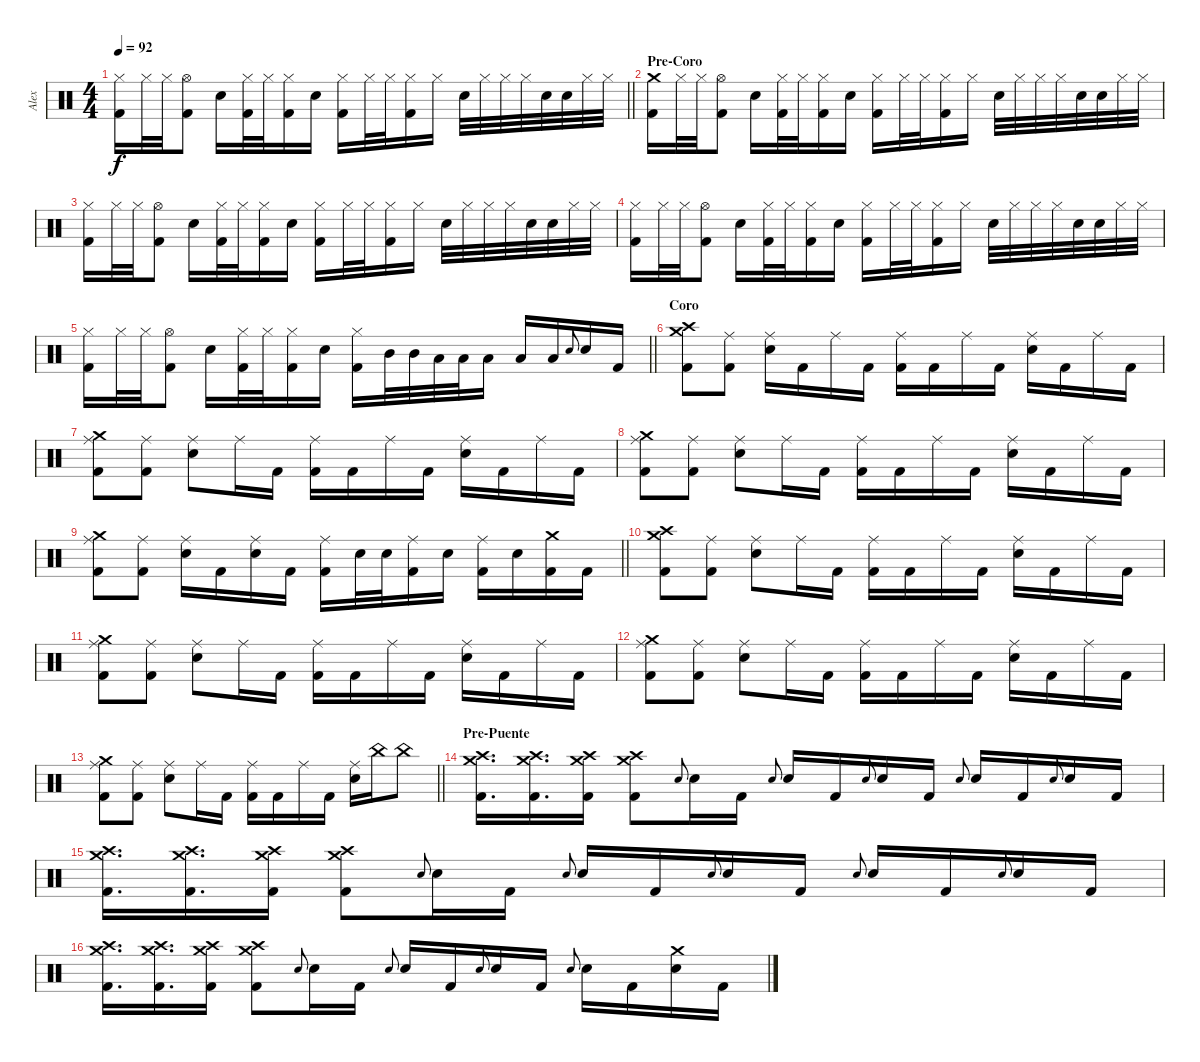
\track ("Alex" "Alex") {instrument percussion}
\staff
\articulation defaults
\ts (4 4)
\tempo 92
\clef neutral
\barLineRight lightlight
\ks c
("Hi-Hat (closed)" "Kick (hit) 2").16{dy f} "Hi-Hat (closed)".32 "Hi-Hat (closed)".32 ("Hi-Hat (open)" "Kick (hit) 2").8 "Electric Snare (hit)".16 ("Hi-Hat (closed)" "Kick (hit) 2").32 "Hi-Hat (closed)".32 ("Hi-Hat (closed)" "Kick (hit) 2").16 "Electric Snare (hit)".16 ("Hi-Hat (closed)" "Kick (hit) 2").16 "Hi-Hat (closed)".32 "Hi-Hat (closed)".32 ("Hi-Hat (closed)" "Kick (hit) 2").16 "Hi-Hat (closed)".16 "Electric Snare (hit)".32 "Hi-Hat (closed)".32 "Hi-Hat (closed)".32 "Hi-Hat (closed)".32 "Electric Snare (hit)".32 "Electric Snare (hit)".32 "Hi-Hat (closed)".32 "Hi-Hat (closed)".32 |
\section ("" "Pre-Coro")
("Crash medium (hit)" "Kick (hit) 2").16 "Hi-Hat (closed)".32 "Hi-Hat (closed)".32 ("Hi-Hat (open)" "Kick (hit) 2").8 "Electric Snare (hit)".16 ("Hi-Hat (closed)" "Kick (hit) 2").32 "Hi-Hat (closed)".32 ("Hi-Hat (closed)" "Kick (hit) 2").16 "Electric Snare (hit)".16 ("Hi-Hat (closed)" "Kick (hit) 2").16 "Hi-Hat (closed)".32 "Hi-Hat (closed)".32 ("Hi-Hat (closed)" "Kick (hit) 2").16 "Hi-Hat (closed)".16 "Electric Snare (hit)".32 "Hi-Hat (closed)".32 "Hi-Hat (closed)".32 "Hi-Hat (closed)".32 "Electric Snare (hit)".32 "Electric Snare (hit)".32 "Hi-Hat (closed)".32 "Hi-Hat (closed)".32 |
("Hi-Hat (closed)" "Kick (hit) 2").16 "Hi-Hat (closed)".32 "Hi-Hat (closed)".32 ("Hi-Hat (open)" "Kick (hit) 2").8 "Electric Snare (hit)".16 ("Hi-Hat (closed)" "Kick (hit) 2").32 "Hi-Hat (closed)".32 ("Hi-Hat (closed)" "Kick (hit) 2").16 "Electric Snare (hit)".16 ("Hi-Hat (closed)" "Kick (hit) 2").16 "Hi-Hat (closed)".32 "Hi-Hat (closed)".32 ("Hi-Hat (closed)" "Kick (hit) 2").16 "Hi-Hat (closed)".16 "Electric Snare (hit)".32 "Hi-Hat (closed)".32 "Hi-Hat (closed)".32 "Hi-Hat (closed)".32 "Electric Snare (hit)".32 "Electric Snare (hit)".32 "Hi-Hat (closed)".32 "Hi-Hat (closed)".32 |
("Hi-Hat (closed)" "Kick (hit) 2").16 "Hi-Hat (closed)".32 "Hi-Hat (closed)".32 ("Hi-Hat (open)" "Kick (hit) 2").8 "Electric Snare (hit)".16 ("Hi-Hat (closed)" "Kick (hit) 2").32 "Hi-Hat (closed)".32 ("Hi-Hat (closed)" "Kick (hit) 2").16 "Electric Snare (hit)".16 ("Hi-Hat (closed)" "Kick (hit) 2").16 "Hi-Hat (closed)".32 "Hi-Hat (closed)".32 ("Hi-Hat (closed)" "Kick (hit) 2").16 "Hi-Hat (closed)".16 "Electric Snare (hit)".32 "Hi-Hat (closed)".32 "Hi-Hat (closed)".32 "Hi-Hat (closed)".32 "Electric Snare (hit)".32 "Electric Snare (hit)".32 "Hi-Hat (closed)".32 "Hi-Hat (closed)".32 |
\barLineRight lightlight
("Hi-Hat (closed)" "Kick (hit) 2").16 "Hi-Hat (closed)".32 "Hi-Hat (closed)".32 ("Hi-Hat (open)" "Kick (hit) 2").8 "Electric Snare (hit)".16 ("Hi-Hat (closed)" "Kick (hit) 2").32 "Hi-Hat (closed)".32 ("Hi-Hat (closed)" "Kick (hit) 2").16 "Electric Snare (hit)".16 ("Hi-Hat (closed)" "Kick (hit) 2").16 "Mid Tom (hit)".32 "Mid Tom (hit)".32 "Low Tom (hit)".32 "Low Tom (hit)".32 "Low Floor Tom (hit)".16 "Low Floor Tom (hit)".16 "Low Floor Tom (hit)".16 "Electric Snare (hit)".8{gr onbeat} "Electric Snare (hit)".16 "Kick (hit) 2".16 |
\section ("" "Coro")
("Crash medium (hit)" "Crash high (hit)" "Kick (hit) 2").8 ("Ride (middle)" "Kick (hit) 2").8 ("Ride (middle)" "Electric Snare (hit)").16 "Kick (hit) 2".16 "Ride (middle)".16 "Kick (hit) 2".16 ("Ride (middle)" "Kick (hit) 2").16 "Kick (hit) 2".16 "Ride (middle)".16 "Kick (hit) 2".16 ("Ride (middle)" "Electric Snare (hit)").16 "Kick (hit) 2".16 "Ride (middle)".16 "Kick (hit) 2".16 |
("Crash medium (hit)" "Ride (middle)" "Kick (hit) 2").8 ("Ride (middle)" "Kick (hit) 2").8 ("Ride (middle)" "Electric Snare (hit)").8 "Ride (middle)".16 "Kick (hit) 2".16 ("Ride (middle)" "Kick (hit) 2").16 "Kick (hit) 2".16 "Ride (middle)".16 "Kick (hit) 2".16 ("Ride (middle)" "Electric Snare (hit)").16 "Kick (hit) 2".16 "Ride (middle)".16 "Kick (hit) 2".16 |
("Crash medium (hit)" "Ride (middle)" "Kick (hit) 2").8 ("Ride (middle)" "Kick (hit) 2").8 ("Ride (middle)" "Electric Snare (hit)").8 "Ride (middle)".16 "Kick (hit) 2".16 ("Ride (middle)" "Kick (hit) 2").16 "Kick (hit) 2".16 "Ride (middle)".16 "Kick (hit) 2".16 ("Ride (middle)" "Electric Snare (hit)").16 "Kick (hit) 2".16 "Ride (middle)".16 "Kick (hit) 2".16 |
\barLineRight lightlight
("Crash medium (hit)" "Ride (middle)" "Kick (hit) 2").8 ("Ride (middle)" "Kick (hit) 2").8 ("Ride (middle)" "Electric Snare (hit)").16 "Kick (hit) 2".16 ("Ride (middle)" "Electric Snare (hit)").16 "Kick (hit) 2".16 ("Ride (middle)" "Kick (hit) 2").16 "Electric Snare (hit)".32 "Electric Snare (hit)".32 ("Ride (middle)" "Kick (hit) 2").16 "Electric Snare (hit)".16 ("Ride (middle)" "Kick (hit) 2").16 "Electric Snare (hit)".16 ("Crash medium (hit)" "Kick (hit) 2").16 "Kick (hit) 2".16 |
("Crash medium (hit)" "Crash high (hit)" "Kick (hit) 2").8 ("Ride (middle)" "Kick (hit) 2").8 ("Ride (middle)" "Electric Snare (hit)").8 "Ride (middle)".16 "Kick (hit) 2".16 ("Ride (middle)" "Kick (hit) 2").16 "Kick (hit) 2".16 "Ride (middle)".16 "Kick (hit) 2".16 ("Ride (middle)" "Electric Snare (hit)").16 "Kick (hit) 2".16 "Ride (middle)".16 "Kick (hit) 2".16 |
("Crash medium (hit)" "Ride (middle)" "Kick (hit) 2").8 ("Ride (middle)" "Kick (hit) 2").8 ("Ride (middle)" "Electric Snare (hit)").8 "Ride (middle)".16 "Kick (hit) 2".16 ("Ride (middle)" "Kick (hit) 2").16 "Kick (hit) 2".16 "Ride (middle)".16 "Kick (hit) 2".16 ("Ride (middle)" "Electric Snare (hit)").16 "Kick (hit) 2".16 "Ride (middle)".16 "Kick (hit) 2".16 |
("Crash medium (hit)" "Ride (middle)" "Kick (hit) 2").8 ("Ride (middle)" "Kick (hit) 2").8 ("Ride (middle)" "Electric Snare (hit)").8 "Ride (middle)".16 "Kick (hit) 2".16 ("Ride (middle)" "Kick (hit) 2").16 "Kick (hit) 2".16 "Ride (middle)".16 "Kick (hit) 2".16 ("Ride (middle)" "Electric Snare (hit)").16 "Kick (hit) 2".16 "Ride (middle)".16 "Kick (hit) 2".16 |
\barLineRight lightlight
("Crash medium (hit)" "Ride (middle)" "Kick (hit) 2").8 ("Ride (middle)" "Kick (hit) 2").8 ("Ride (middle)" "Electric Snare (hit)").8 "Ride (middle)".16 "Kick (hit) 2".16 ("Ride (middle)" "Kick (hit) 2").16 "Kick (hit) 2".16 "Ride (middle)".16 "Kick (hit) 2".16 ("Ride (middle)" "Electric Snare (hit)").16 "China (hit)".16 "China (hit)".8 |
\section ("" "Pre-Puente")
("Crash medium (hit)" "Crash high (hit)" "Kick (hit) 2").16{d} ("Crash medium (hit)" "Crash high (hit)" "Kick (hit) 2").16{d} ("Crash medium (hit)" "Crash high (hit)" "Kick (hit) 2").16 ("Crash medium (hit)" "Crash high (hit)" "Kick (hit) 2").8 "Electric Snare (hit)".8{gr onbeat} "Electric Snare (hit)".16 "Kick (hit) 2".16 "Electric Snare (hit)".8{gr onbeat} "Electric Snare (hit)".16 "Kick (hit) 2".16 "Electric Snare (hit)".8{gr onbeat} "Electric Snare (hit)".16 "Kick (hit) 2".16 "Electric Snare (hit)".8{gr onbeat} "Electric Snare (hit)".16 "Kick (hit) 2".16 "Electric Snare (hit)".8{gr onbeat} "Electric Snare (hit)".16 "Kick (hit) 2".16 |
("Crash medium (hit)" "Crash high (hit)" "Kick (hit) 2").16{d} ("Crash medium (hit)" "Crash high (hit)" "Kick (hit) 2").16{d} ("Crash medium (hit)" "Crash high (hit)" "Kick (hit) 2").16 ("Crash medium (hit)" "Crash high (hit)" "Kick (hit) 2").8 "Electric Snare (hit)".8{gr onbeat} "Electric Snare (hit)".16 "Kick (hit) 2".16 "Electric Snare (hit)".8{gr onbeat} "Electric Snare (hit)".16 "Kick (hit) 2".16 "Electric Snare (hit)".8{gr onbeat} "Electric Snare (hit)".16 "Kick (hit) 2".16 "Electric Snare (hit)".8{gr onbeat} "Electric Snare (hit)".16 "Kick (hit) 2".16 "Electric Snare (hit)".8{gr onbeat} "Electric Snare (hit)".16 "Kick (hit) 2".16 |
("Crash medium (hit)" "Crash high (hit)" "Kick (hit) 2").16{d} ("Crash medium (hit)" "Crash high (hit)" "Kick (hit) 2").16{d} ("Crash medium (hit)" "Crash high (hit)" "Kick (hit) 2").16 ("Crash medium (hit)" "Crash high (hit)" "Kick (hit) 2").8 "Electric Snare (hit)".8{gr onbeat} "Electric Snare (hit)".16 "Kick (hit) 2".16 "Electric Snare (hit)".8{gr onbeat} "Electric Snare (hit)".16 "Kick (hit) 2".16 "Electric Snare (hit)".8{gr onbeat} "Electric Snare (hit)".16 "Kick (hit) 2".16 "Electric Snare (hit)".8{gr onbeat} "Electric Snare (hit)".16 "Kick (hit) 2".16 ("Crash medium (hit)" "Electric Snare (hit)").16 "Kick (hit) 2".16
